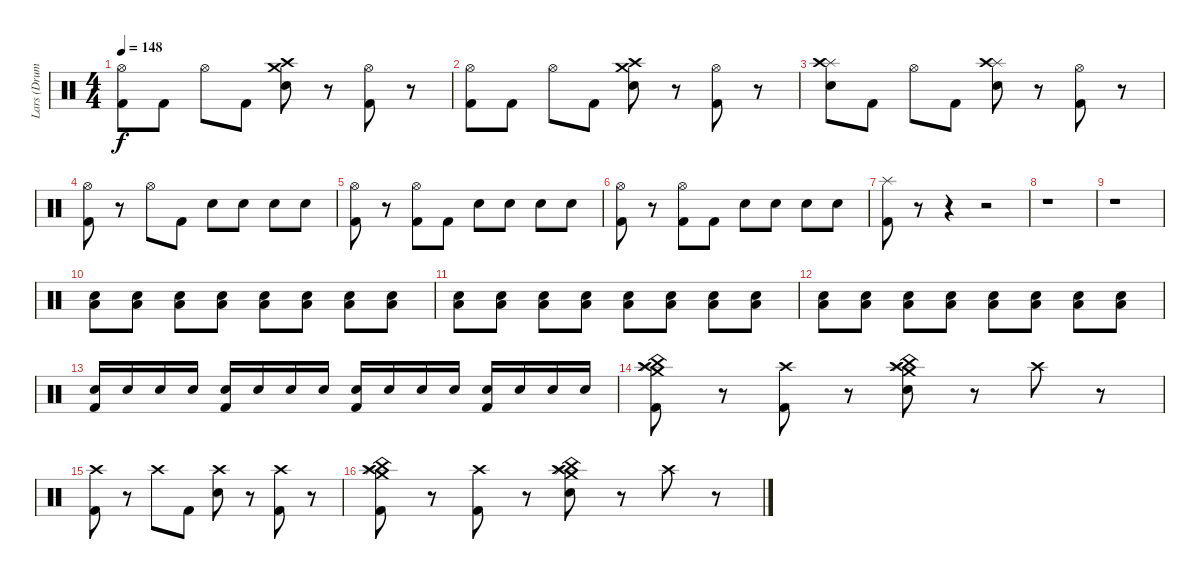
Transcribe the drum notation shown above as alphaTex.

\track ("Lars (Drums)" "Lars (Drum") {instrument percussion}
\staff {score}
\articulation defaults
\ts (4 4)
\tempo 148
\clef neutral
\ks c
("Hi-Hat (open)" "Kick (hit) 2").8{dy f} "Kick (hit) 2".8 "Hi-Hat (open)".8 "Kick (hit) 2".8 ("Crash high (hit)" "Crash medium (hit)" "Snare (hit) 2").8 r.8 ("Kick (hit) 2" "Hi-Hat (open)").8 r.8 |
("Hi-Hat (open)" "Kick (hit) 2").8 "Kick (hit) 2".8 "Hi-Hat (open)".8 "Kick (hit) 2".8 ("Crash medium (hit)" "Crash high (hit)" "Snare (hit) 2").8 r.8 ("Kick (hit) 2" "Hi-Hat (open)").8 r.8 |
("Splash (hit)" "Crash high (hit)" "Snare (hit) 2").8 "Kick (hit) 2".8 "Hi-Hat (open)".8 "Kick (hit) 2".8 ("Splash (hit)" "Crash high (hit)" "Snare (hit) 2").8 r.8 ("Hi-Hat (open)" "Kick (hit) 2").8 r.8 |
("Hi-Hat (open)" "Kick (hit) 2").8 r.8 "Hi-Hat (open)".8 "Kick (hit) 2".8 "Snare (hit) 2".8 "Snare (hit) 2".8 "Snare (hit) 2".8 "Snare (hit) 2".8 |
("Hi-Hat (open)" "Kick (hit) 2").8 r.8 ("Kick (hit) 2" "Hi-Hat (open)").8 "Kick (hit) 2".8 "Snare (hit) 2".8 "Snare (hit) 2".8 "Snare (hit) 2".8 "Snare (hit) 2".8 |
("Hi-Hat (open)" "Kick (hit) 2").8 r.8 ("Kick (hit) 2" "Hi-Hat (open)").8 "Kick (hit) 2".8 "Snare (hit) 2".8 "Snare (hit) 2".8 "Snare (hit) 2".8 "Snare (hit) 2".8 |
("Splash (hit)" "Kick (hit) 2").8 r.8 r.4 r.2 |
r.1 |
r.1 |
("Low Floor Tom (hit)" "Snare (hit) 2").8 ("Snare (hit) 2" "Low Floor Tom (hit)").8 ("Snare (hit) 2" "Low Floor Tom (hit)").8 ("Snare (hit) 2" "Low Floor Tom (hit)").8 ("Snare (hit) 2" "Low Floor Tom (hit)").8 ("Snare (hit) 2" "Low Floor Tom (hit)").8 ("Snare (hit) 2" "Low Floor Tom (hit)").8 ("Snare (hit) 2" "Low Floor Tom (hit)").8 |
("Low Floor Tom (hit)" "Snare (hit) 2").8 ("Snare (hit) 2" "Low Floor Tom (hit)").8 ("Snare (hit) 2" "Low Floor Tom (hit)").8 ("Snare (hit) 2" "Low Floor Tom (hit)").8 ("Snare (hit) 2" "Low Floor Tom (hit)").8 ("Snare (hit) 2" "Low Floor Tom (hit)").8 ("Snare (hit) 2" "Low Floor Tom (hit)").8 ("Snare (hit) 2" "Low Floor Tom (hit)").8 |
("Low Floor Tom (hit)" "Snare (hit) 2").8 ("Snare (hit) 2" "Low Floor Tom (hit)").8 ("Snare (hit) 2" "Low Floor Tom (hit)").8 ("Snare (hit) 2" "Low Floor Tom (hit)").8 ("Snare (hit) 2" "Low Floor Tom (hit)").8 ("Snare (hit) 2" "Low Floor Tom (hit)").8 ("Snare (hit) 2" "Low Floor Tom (hit)").8 ("Snare (hit) 2" "Low Floor Tom (hit)").8 |
("Kick (hit) 2" "Snare (hit) 2").16 "Snare (hit) 2".16 "Snare (hit) 2".16 "Snare (hit) 2".16 ("Kick (hit) 2" "Snare (hit) 2").16 "Snare (hit) 2".16 "Snare (hit) 2".16 "Snare (hit) 2".16 ("Kick (hit) 2" "Snare (hit) 2").16 "Snare (hit) 2".16 "Snare (hit) 2".16 "Snare (hit) 2".16 ("Kick (hit) 2" "Snare (hit) 2").16 "Snare (hit) 2".16 "Snare (hit) 2".16 "Snare (hit) 2".16 |
("Splash (hit)" "Crash medium (hit)" "China (hit)" "Crash high (hit)" "Kick (hit) 2").8 r.8 ("Crash high (hit)" "Kick (hit) 2").8 r.8 ("Crash medium (hit)" "Splash (hit)" "Crash high (hit)" "China (hit)" "Snare (hit) 2").8 r.8 "Crash high (hit)".8 r.8 |
("Crash high (hit)" "Kick (hit) 2").8 r.8 "Crash high (hit)".8 "Kick (hit) 2".8 ("Crash high (hit)" "Snare (hit) 2").8 r.8 ("Kick (hit) 2" "Crash high (hit)").8 r.8 |
("Splash (hit)" "Crash medium (hit)" "China (hit)" "Crash high (hit)" "Kick (hit) 2").8 r.8 ("Crash high (hit)" "Kick (hit) 2").8 r.8 ("Crash medium (hit)" "Splash (hit)" "Crash high (hit)" "China (hit)" "Snare (hit) 2").8 r.8 "Crash high (hit)".8 r.8
